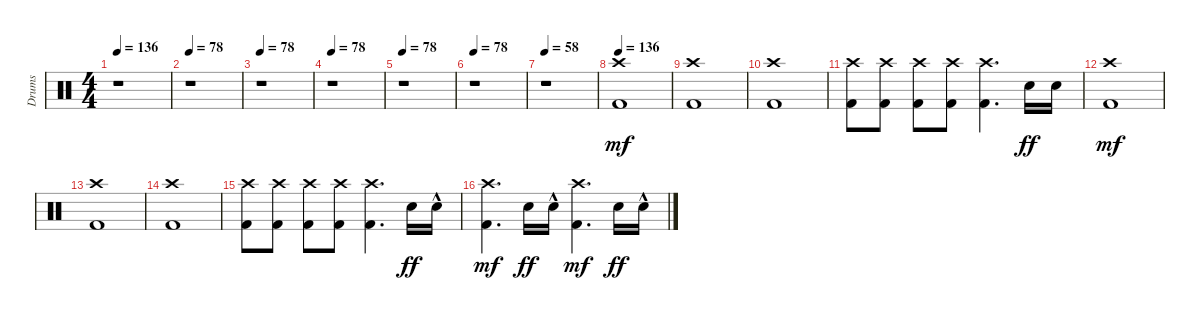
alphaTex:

\track ("Drums" "Drums") {instrument percussion}
\staff {score}
\articulation defaults
\ts (4 4)
\tempo 136
\clef neutral
\ks c
r.1{dy mf} |
\tempo 78
r.1 |
\tempo 78
r.1 |
\tempo 78
r.1 |
\tempo 78
r.1 |
\tempo 78
r.1 |
\tempo 58
r.1 |
\tempo 136
("Kick (hit) 2" "Crash high (hit)").1 |
("Kick (hit) 2" "Crash high (hit)").1 |
("Kick (hit) 2" "Crash high (hit)").1 |
("Kick (hit) 2" "Crash high (hit)").8 ("Kick (hit) 2" "Crash high (hit)").8 ("Kick (hit) 2" "Crash high (hit)").8 ("Kick (hit) 2" "Crash high (hit)").8 ("Kick (hit) 2" "Crash high (hit)").4{d} "Snare (hit) 2".16{dy ff} "Snare (hit) 2".16 |
("Kick (hit) 2" "Crash high (hit)").1{dy mf} |
("Kick (hit) 2" "Crash high (hit)").1 |
("Kick (hit) 2" "Crash high (hit)").1 |
("Kick (hit) 2" "Crash high (hit)").8 ("Kick (hit) 2" "Crash high (hit)").8 ("Kick (hit) 2" "Crash high (hit)").8 ("Kick (hit) 2" "Crash high (hit)").8 ("Kick (hit) 2" "Crash high (hit)").4{d} "Snare (hit) 2".16{dy ff} "Snare (hit) 2"{hac}.16 |
("Kick (hit) 2" "Crash high (hit)").4{d dy mf} "Snare (hit) 2".16{dy ff} "Snare (hit) 2"{hac}.16 ("Kick (hit) 2" "Crash high (hit)").4{d dy mf} "Snare (hit) 2".16{dy ff} "Snare (hit) 2"{hac}.16
